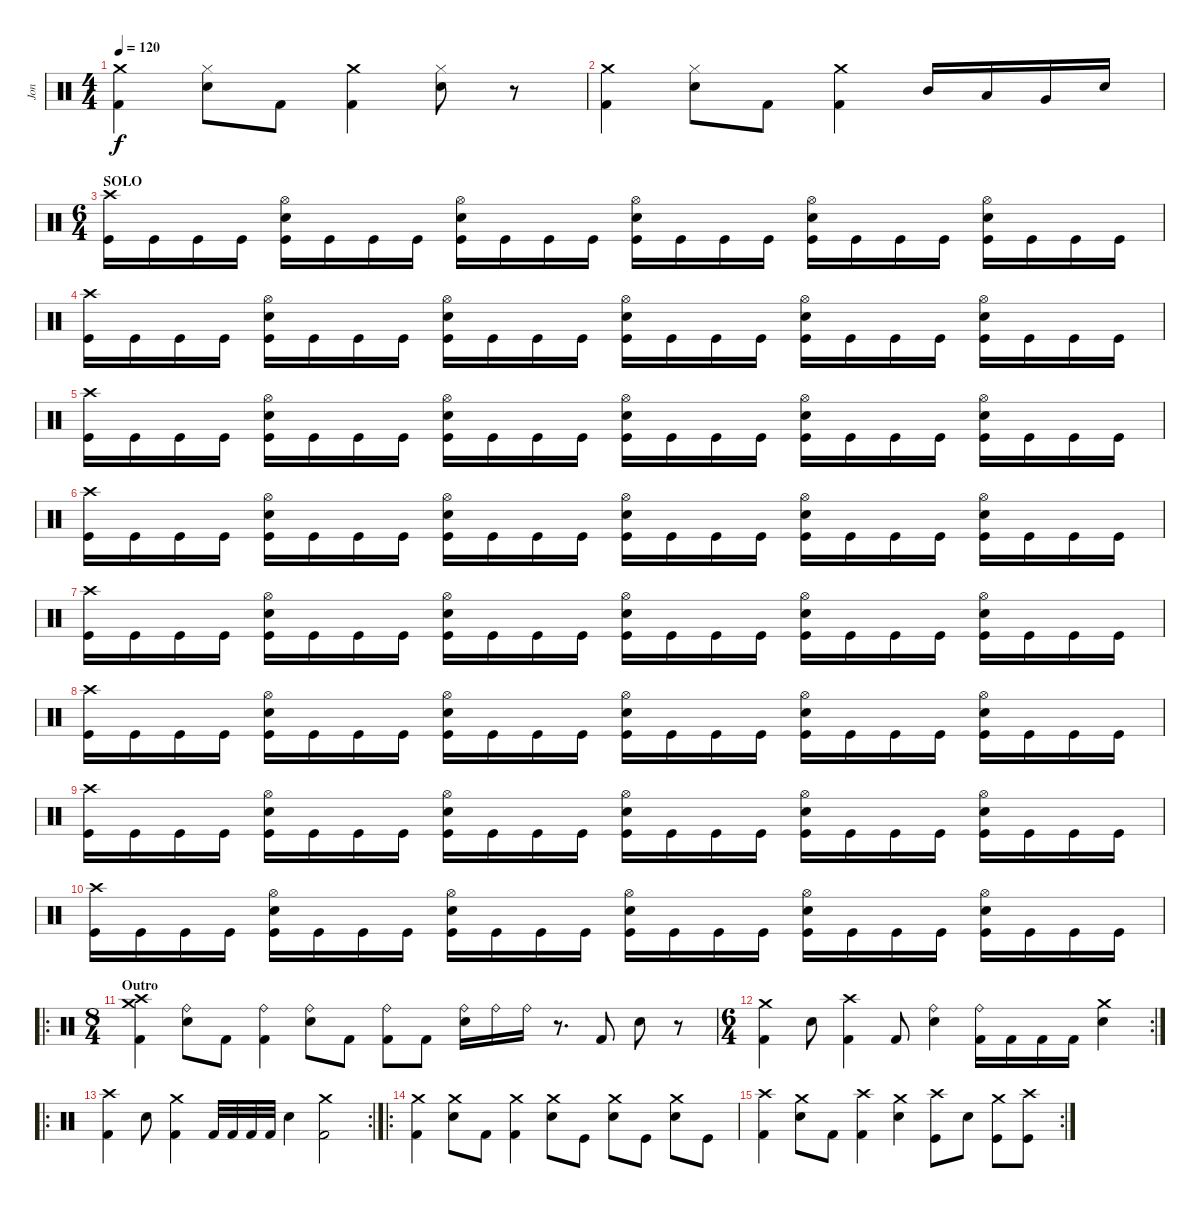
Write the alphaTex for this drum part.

\track ("Jon" "Jon") {instrument percussion}
\staff {score}
\articulation defaults
\ts (4 4)
\tempo 120
\clef neutral
\ks c
("Crash medium (hit)" "Kick (hit) 2").4{dy f} ("Snare (hit) 2" "Hi-Hat (closed)").8 "Kick (hit) 2".8 ("Crash medium (hit)" "Kick (hit) 2").4 ("Snare (hit) 2" "Hi-Hat (closed)").8 r.8 |
("Crash medium (hit)" "Kick (hit) 2").4 ("Snare (hit) 2" "Hi-Hat (closed)").8 "Kick (hit) 2".8 ("Crash medium (hit)" "Kick (hit) 2").4 "Mid Tom (hit)".16 "Low Tom (hit)".16 "Very Low Tom (hit)".16 "Snare (hit) 2".16 |
\ts (6 4)
\section ("" "SOLO")
("Crash high (hit)" "Kick (hit)").16 "Kick (hit)".16 "Kick (hit)".16 "Kick (hit)".16 ("Hi-Hat (open)" "Snare (hit) 2" "Kick (hit)").16 "Kick (hit)".16 "Kick (hit)".16 "Kick (hit)".16 ("Hi-Hat (open)" "Snare (hit) 2" "Kick (hit)").16 "Kick (hit)".16 "Kick (hit)".16 "Kick (hit)".16 ("Hi-Hat (open)" "Snare (hit) 2" "Kick (hit)").16 "Kick (hit)".16 "Kick (hit)".16 "Kick (hit)".16 ("Hi-Hat (open)" "Snare (hit) 2" "Kick (hit)").16 "Kick (hit)".16 "Kick (hit)".16 "Kick (hit)".16 ("Hi-Hat (open)" "Snare (hit) 2" "Kick (hit)").16 "Kick (hit)".16 "Kick (hit)".16 "Kick (hit)".16 |
("Crash high (hit)" "Kick (hit)").16 "Kick (hit)".16 "Kick (hit)".16 "Kick (hit)".16 ("Hi-Hat (open)" "Snare (hit) 2" "Kick (hit)").16 "Kick (hit)".16 "Kick (hit)".16 "Kick (hit)".16 ("Hi-Hat (open)" "Snare (hit) 2" "Kick (hit)").16 "Kick (hit)".16 "Kick (hit)".16 "Kick (hit)".16 ("Hi-Hat (open)" "Snare (hit) 2" "Kick (hit)").16 "Kick (hit)".16 "Kick (hit)".16 "Kick (hit)".16 ("Hi-Hat (open)" "Snare (hit) 2" "Kick (hit)").16 "Kick (hit)".16 "Kick (hit)".16 "Kick (hit)".16 ("Hi-Hat (open)" "Snare (hit) 2" "Kick (hit)").16 "Kick (hit)".16 "Kick (hit)".16 "Kick (hit)".16 |
("Crash high (hit)" "Kick (hit)").16 "Kick (hit)".16 "Kick (hit)".16 "Kick (hit)".16 ("Hi-Hat (open)" "Snare (hit) 2" "Kick (hit)").16 "Kick (hit)".16 "Kick (hit)".16 "Kick (hit)".16 ("Hi-Hat (open)" "Snare (hit) 2" "Kick (hit)").16 "Kick (hit)".16 "Kick (hit)".16 "Kick (hit)".16 ("Hi-Hat (open)" "Snare (hit) 2" "Kick (hit)").16 "Kick (hit)".16 "Kick (hit)".16 "Kick (hit)".16 ("Hi-Hat (open)" "Snare (hit) 2" "Kick (hit)").16 "Kick (hit)".16 "Kick (hit)".16 "Kick (hit)".16 ("Hi-Hat (open)" "Snare (hit) 2" "Kick (hit)").16 "Kick (hit)".16 "Kick (hit)".16 "Kick (hit)".16 |
("Crash high (hit)" "Kick (hit)").16 "Kick (hit)".16 "Kick (hit)".16 "Kick (hit)".16 ("Hi-Hat (open)" "Snare (hit) 2" "Kick (hit)").16 "Kick (hit)".16 "Kick (hit)".16 "Kick (hit)".16 ("Hi-Hat (open)" "Snare (hit) 2" "Kick (hit)").16 "Kick (hit)".16 "Kick (hit)".16 "Kick (hit)".16 ("Hi-Hat (open)" "Snare (hit) 2" "Kick (hit)").16 "Kick (hit)".16 "Kick (hit)".16 "Kick (hit)".16 ("Hi-Hat (open)" "Snare (hit) 2" "Kick (hit)").16 "Kick (hit)".16 "Kick (hit)".16 "Kick (hit)".16 ("Hi-Hat (open)" "Snare (hit) 2" "Kick (hit)").16 "Kick (hit)".16 "Kick (hit)".16 "Kick (hit)".16 |
("Crash high (hit)" "Kick (hit)").16 "Kick (hit)".16 "Kick (hit)".16 "Kick (hit)".16 ("Hi-Hat (open)" "Snare (hit) 2" "Kick (hit)").16 "Kick (hit)".16 "Kick (hit)".16 "Kick (hit)".16 ("Hi-Hat (open)" "Snare (hit) 2" "Kick (hit)").16 "Kick (hit)".16 "Kick (hit)".16 "Kick (hit)".16 ("Hi-Hat (open)" "Snare (hit) 2" "Kick (hit)").16 "Kick (hit)".16 "Kick (hit)".16 "Kick (hit)".16 ("Hi-Hat (open)" "Snare (hit) 2" "Kick (hit)").16 "Kick (hit)".16 "Kick (hit)".16 "Kick (hit)".16 ("Hi-Hat (open)" "Snare (hit) 2" "Kick (hit)").16 "Kick (hit)".16 "Kick (hit)".16 "Kick (hit)".16 |
("Crash high (hit)" "Kick (hit)").16 "Kick (hit)".16 "Kick (hit)".16 "Kick (hit)".16 ("Hi-Hat (open)" "Snare (hit) 2" "Kick (hit)").16 "Kick (hit)".16 "Kick (hit)".16 "Kick (hit)".16 ("Hi-Hat (open)" "Snare (hit) 2" "Kick (hit)").16 "Kick (hit)".16 "Kick (hit)".16 "Kick (hit)".16 ("Hi-Hat (open)" "Snare (hit) 2" "Kick (hit)").16 "Kick (hit)".16 "Kick (hit)".16 "Kick (hit)".16 ("Hi-Hat (open)" "Snare (hit) 2" "Kick (hit)").16 "Kick (hit)".16 "Kick (hit)".16 "Kick (hit)".16 ("Hi-Hat (open)" "Snare (hit) 2" "Kick (hit)").16 "Kick (hit)".16 "Kick (hit)".16 "Kick (hit)".16 |
("Crash high (hit)" "Kick (hit)").16 "Kick (hit)".16 "Kick (hit)".16 "Kick (hit)".16 ("Hi-Hat (open)" "Snare (hit) 2" "Kick (hit)").16 "Kick (hit)".16 "Kick (hit)".16 "Kick (hit)".16 ("Hi-Hat (open)" "Snare (hit) 2" "Kick (hit)").16 "Kick (hit)".16 "Kick (hit)".16 "Kick (hit)".16 ("Hi-Hat (open)" "Snare (hit) 2" "Kick (hit)").16 "Kick (hit)".16 "Kick (hit)".16 "Kick (hit)".16 ("Hi-Hat (open)" "Snare (hit) 2" "Kick (hit)").16 "Kick (hit)".16 "Kick (hit)".16 "Kick (hit)".16 ("Hi-Hat (open)" "Snare (hit) 2" "Kick (hit)").16 "Kick (hit)".16 "Kick (hit)".16 "Kick (hit)".16 |
("Crash high (hit)" "Kick (hit)").16 "Kick (hit)".16 "Kick (hit)".16 "Kick (hit)".16 ("Hi-Hat (open)" "Snare (hit) 2" "Kick (hit)").16 "Kick (hit)".16 "Kick (hit)".16 "Kick (hit)".16 ("Hi-Hat (open)" "Snare (hit) 2" "Kick (hit)").16 "Kick (hit)".16 "Kick (hit)".16 "Kick (hit)".16 ("Hi-Hat (open)" "Snare (hit) 2" "Kick (hit)").16 "Kick (hit)".16 "Kick (hit)".16 "Kick (hit)".16 ("Hi-Hat (open)" "Snare (hit) 2" "Kick (hit)").16 "Kick (hit)".16 "Kick (hit)".16 "Kick (hit)".16 ("Hi-Hat (open)" "Snare (hit) 2" "Kick (hit)").16 "Kick (hit)".16 "Kick (hit)".16 "Kick (hit)".16 |
\ro
\ts (8 4)
\section ("" "Outro")
("Crash medium (hit)" "Crash high (hit)" "Kick (hit) 2").4 ("Ride (bell)" "Snare (hit) 2").8 "Kick (hit) 2".8 ("Ride (bell)" "Kick (hit) 2").4 ("Ride (bell)" "Snare (hit) 2").8 "Kick (hit) 2".8 ("Ride (bell)" "Kick (hit) 2").8 "Kick (hit) 2".8 ("Ride (bell)" "Snare (hit) 2").16 "Ride (bell)".16 "Ride (bell)".16 r.8{d} "Kick (hit) 2".8 "Snare (hit) 2".8 r.8 |
\rc 2
\ts (6 4)
("Crash medium (hit)" "Kick (hit) 2").4 "Snare (hit) 2".8 ("Crash high (hit)" "Kick (hit) 2").4 "Kick (hit) 2".8 ("Ride (bell)" "Snare (hit) 2").4 ("Ride (bell)" "Kick (hit) 2").16 "Kick (hit) 2".16 "Kick (hit) 2".16 "Kick (hit) 2".16 ("Crash medium (hit)" "Snare (hit) 2").4 |
\ro
\rc 2
("Crash high (hit)" "Kick (hit) 2").4 "Snare (hit) 2".8 ("Crash medium (hit)" "Kick (hit) 2").4 "Kick (hit) 2".32 "Kick (hit) 2".32 "Kick (hit) 2".32 "Kick (hit) 2".32 "Snare (hit) 2".4 ("Crash medium (hit)" "Kick (hit) 2").2 |
\ro
("Crash medium (hit)" "Kick (hit) 2").4 ("Snare (hit) 2" "Crash medium (hit)").8 "Kick (hit) 2".8 ("Crash medium (hit)" "Kick (hit) 2").4 ("Snare (hit) 2" "Crash medium (hit)").8 "Kick (hit)".8 ("Crash medium (hit)" "Snare (hit) 2").8 "Kick (hit)".8 ("Crash medium (hit)" "Snare (hit) 2").8 "Kick (hit)".8 |
\rc 2
("Crash high (hit)" "Kick (hit) 2").4 ("Snare (hit) 2" "Crash medium (hit)").8 "Kick (hit) 2".8 ("Crash high (hit)" "Kick (hit) 2").4 ("Snare (hit) 2" "Crash medium (hit)").4 ("Crash high (hit)" "Kick (hit)").8 "Snare (hit) 2".8 ("Crash medium (hit)" "Kick (hit)").8 ("Crash high (hit)" "Kick (hit)").8
